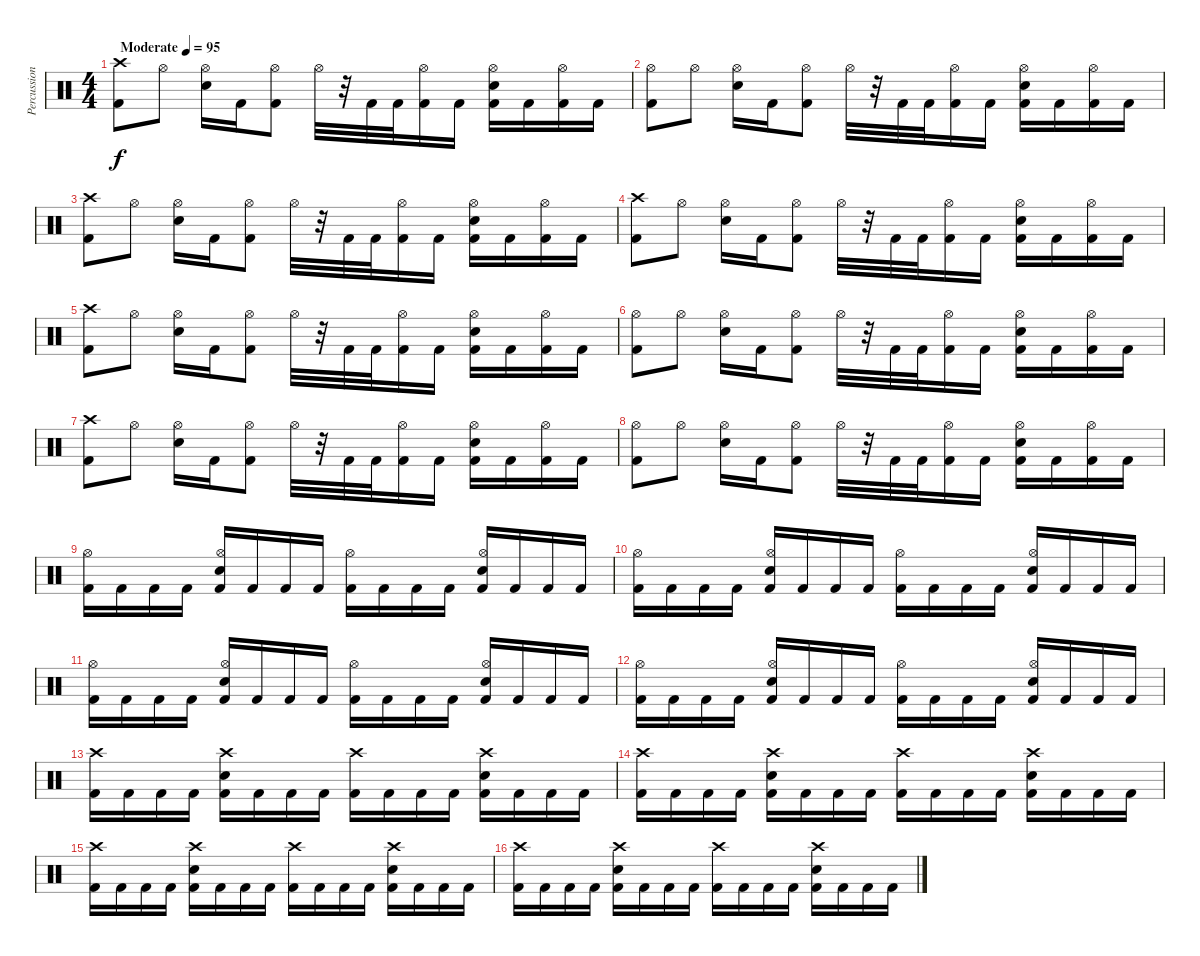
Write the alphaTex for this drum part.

\track ("Percussion" "Percussion") {instrument percussion}
\staff {score}
\articulation defaults
\ts (4 4)
\tempo (95 "Moderate")
\clef neutral
\ks c
("Crash high (hit)" "Kick (hit) 2").8{dy f} "Hi-Hat (open)".8 ("Hi-Hat (open)" "Electric Snare (hit)").16 "Kick (hit) 2".16 ("Hi-Hat (open)" "Kick (hit) 2").8 "Hi-Hat (open)".32 r.32 "Kick (hit) 2".32 "Kick (hit) 2".32 ("Kick (hit) 2" "Hi-Hat (open)").16 "Kick (hit) 2".16 ("Kick (hit) 2" "Hi-Hat (open)" "Electric Snare (hit)").16 "Kick (hit) 2".16 ("Kick (hit) 2" "Hi-Hat (open)").16 "Kick (hit) 2".16 |
("Hi-Hat (open)" "Kick (hit) 2").8 "Hi-Hat (open)".8 ("Hi-Hat (open)" "Electric Snare (hit)").16 "Kick (hit) 2".16 ("Hi-Hat (open)" "Kick (hit) 2").8 "Hi-Hat (open)".32 r.32 "Kick (hit) 2".32 "Kick (hit) 2".32 ("Kick (hit) 2" "Hi-Hat (open)").16 "Kick (hit) 2".16 ("Kick (hit) 2" "Hi-Hat (open)" "Electric Snare (hit)").16 "Kick (hit) 2".16 ("Kick (hit) 2" "Hi-Hat (open)").16 "Kick (hit) 2".16 |
("Crash high (hit)" "Kick (hit) 2").8 "Hi-Hat (open)".8 ("Hi-Hat (open)" "Electric Snare (hit)").16 "Kick (hit) 2".16 ("Hi-Hat (open)" "Kick (hit) 2").8 "Hi-Hat (open)".32 r.32 "Kick (hit) 2".32 "Kick (hit) 2".32 ("Kick (hit) 2" "Hi-Hat (open)").16 "Kick (hit) 2".16 ("Kick (hit) 2" "Hi-Hat (open)" "Electric Snare (hit)").16 "Kick (hit) 2".16 ("Kick (hit) 2" "Hi-Hat (open)").16 "Kick (hit) 2".16 |
("Crash high (hit)" "Kick (hit) 2").8 "Hi-Hat (open)".8 ("Hi-Hat (open)" "Electric Snare (hit)").16 "Kick (hit) 2".16 ("Hi-Hat (open)" "Kick (hit) 2").8 "Hi-Hat (open)".32 r.32 "Kick (hit) 2".32 "Kick (hit) 2".32 ("Kick (hit) 2" "Hi-Hat (open)").16 "Kick (hit) 2".16 ("Kick (hit) 2" "Hi-Hat (open)" "Electric Snare (hit)").16 "Kick (hit) 2".16 ("Kick (hit) 2" "Hi-Hat (open)").16 "Kick (hit) 2".16 |
("Crash high (hit)" "Kick (hit) 2").8 "Hi-Hat (open)".8 ("Hi-Hat (open)" "Electric Snare (hit)").16 "Kick (hit) 2".16 ("Hi-Hat (open)" "Kick (hit) 2").8 "Hi-Hat (open)".32 r.32 "Kick (hit) 2".32 "Kick (hit) 2".32 ("Kick (hit) 2" "Hi-Hat (open)").16 "Kick (hit) 2".16 ("Kick (hit) 2" "Hi-Hat (open)" "Electric Snare (hit)").16 "Kick (hit) 2".16 ("Kick (hit) 2" "Hi-Hat (open)").16 "Kick (hit) 2".16 |
("Hi-Hat (open)" "Kick (hit) 2").8 "Hi-Hat (open)".8 ("Hi-Hat (open)" "Electric Snare (hit)").16 "Kick (hit) 2".16 ("Hi-Hat (open)" "Kick (hit) 2").8 "Hi-Hat (open)".32 r.32 "Kick (hit) 2".32 "Kick (hit) 2".32 ("Kick (hit) 2" "Hi-Hat (open)").16 "Kick (hit) 2".16 ("Kick (hit) 2" "Hi-Hat (open)" "Electric Snare (hit)").16 "Kick (hit) 2".16 ("Kick (hit) 2" "Hi-Hat (open)").16 "Kick (hit) 2".16 |
("Crash high (hit)" "Kick (hit) 2").8 "Hi-Hat (open)".8 ("Hi-Hat (open)" "Electric Snare (hit)").16 "Kick (hit) 2".16 ("Hi-Hat (open)" "Kick (hit) 2").8 "Hi-Hat (open)".32 r.32 "Kick (hit) 2".32 "Kick (hit) 2".32 ("Kick (hit) 2" "Hi-Hat (open)").16 "Kick (hit) 2".16 ("Kick (hit) 2" "Hi-Hat (open)" "Electric Snare (hit)").16 "Kick (hit) 2".16 ("Kick (hit) 2" "Hi-Hat (open)").16 "Kick (hit) 2".16 |
("Hi-Hat (open)" "Kick (hit) 2").8 "Hi-Hat (open)".8 ("Hi-Hat (open)" "Electric Snare (hit)").16 "Kick (hit) 2".16 ("Hi-Hat (open)" "Kick (hit) 2").8 "Hi-Hat (open)".32 r.32 "Kick (hit) 2".32 "Kick (hit) 2".32 ("Kick (hit) 2" "Hi-Hat (open)").16 "Kick (hit) 2".16 ("Kick (hit) 2" "Hi-Hat (open)" "Electric Snare (hit)").16 "Kick (hit) 2".16 ("Kick (hit) 2" "Hi-Hat (open)").16 "Kick (hit) 2".16 |
("Kick (hit) 2" "Hi-Hat (open)").16 "Kick (hit) 2".16 "Kick (hit) 2".16 "Kick (hit) 2".16 ("Kick (hit) 2" "Hi-Hat (open)" "Electric Snare (hit)").16 "Kick (hit) 2".16 "Kick (hit) 2".16 "Kick (hit) 2".16 ("Kick (hit) 2" "Hi-Hat (open)").16 "Kick (hit) 2".16 "Kick (hit) 2".16 "Kick (hit) 2".16 ("Kick (hit) 2" "Hi-Hat (open)" "Electric Snare (hit)").16 "Kick (hit) 2".16 "Kick (hit) 2".16 "Kick (hit) 2".16 |
("Kick (hit) 2" "Hi-Hat (open)").16 "Kick (hit) 2".16 "Kick (hit) 2".16 "Kick (hit) 2".16 ("Kick (hit) 2" "Hi-Hat (open)" "Electric Snare (hit)").16 "Kick (hit) 2".16 "Kick (hit) 2".16 "Kick (hit) 2".16 ("Kick (hit) 2" "Hi-Hat (open)").16 "Kick (hit) 2".16 "Kick (hit) 2".16 "Kick (hit) 2".16 ("Kick (hit) 2" "Hi-Hat (open)" "Electric Snare (hit)").16 "Kick (hit) 2".16 "Kick (hit) 2".16 "Kick (hit) 2".16 |
("Kick (hit) 2" "Hi-Hat (open)").16 "Kick (hit) 2".16 "Kick (hit) 2".16 "Kick (hit) 2".16 ("Kick (hit) 2" "Hi-Hat (open)" "Electric Snare (hit)").16 "Kick (hit) 2".16 "Kick (hit) 2".16 "Kick (hit) 2".16 ("Kick (hit) 2" "Hi-Hat (open)").16 "Kick (hit) 2".16 "Kick (hit) 2".16 "Kick (hit) 2".16 ("Kick (hit) 2" "Hi-Hat (open)" "Electric Snare (hit)").16 "Kick (hit) 2".16 "Kick (hit) 2".16 "Kick (hit) 2".16 |
("Kick (hit) 2" "Hi-Hat (open)").16 "Kick (hit) 2".16 "Kick (hit) 2".16 "Kick (hit) 2".16 ("Kick (hit) 2" "Hi-Hat (open)" "Electric Snare (hit)").16 "Kick (hit) 2".16 "Kick (hit) 2".16 "Kick (hit) 2".16 ("Kick (hit) 2" "Hi-Hat (open)").16 "Kick (hit) 2".16 "Kick (hit) 2".16 "Kick (hit) 2".16 ("Kick (hit) 2" "Hi-Hat (open)" "Electric Snare (hit)").16 "Kick (hit) 2".16 "Kick (hit) 2".16 "Kick (hit) 2".16 |
("Kick (hit) 2" "Crash high (hit)").16 "Kick (hit) 2".16 "Kick (hit) 2".16 "Kick (hit) 2".16 ("Kick (hit) 2" "Crash high (hit)" "Electric Snare (hit)").16 "Kick (hit) 2".16 "Kick (hit) 2".16 "Kick (hit) 2".16 ("Kick (hit) 2" "Crash high (hit)").16 "Kick (hit) 2".16 "Kick (hit) 2".16 "Kick (hit) 2".16 ("Kick (hit) 2" "Crash high (hit)" "Electric Snare (hit)").16 "Kick (hit) 2".16 "Kick (hit) 2".16 "Kick (hit) 2".16 |
("Kick (hit) 2" "Crash high (hit)").16 "Kick (hit) 2".16 "Kick (hit) 2".16 "Kick (hit) 2".16 ("Kick (hit) 2" "Crash high (hit)" "Electric Snare (hit)").16 "Kick (hit) 2".16 "Kick (hit) 2".16 "Kick (hit) 2".16 ("Kick (hit) 2" "Crash high (hit)").16 "Kick (hit) 2".16 "Kick (hit) 2".16 "Kick (hit) 2".16 ("Kick (hit) 2" "Crash high (hit)" "Electric Snare (hit)").16 "Kick (hit) 2".16 "Kick (hit) 2".16 "Kick (hit) 2".16 |
("Kick (hit) 2" "Crash high (hit)").16 "Kick (hit) 2".16 "Kick (hit) 2".16 "Kick (hit) 2".16 ("Kick (hit) 2" "Crash high (hit)" "Electric Snare (hit)").16 "Kick (hit) 2".16 "Kick (hit) 2".16 "Kick (hit) 2".16 ("Kick (hit) 2" "Crash high (hit)").16 "Kick (hit) 2".16 "Kick (hit) 2".16 "Kick (hit) 2".16 ("Kick (hit) 2" "Crash high (hit)" "Electric Snare (hit)").16 "Kick (hit) 2".16 "Kick (hit) 2".16 "Kick (hit) 2".16 |
("Kick (hit) 2" "Crash high (hit)").16 "Kick (hit) 2".16 "Kick (hit) 2".16 "Kick (hit) 2".16 ("Kick (hit) 2" "Crash high (hit)" "Electric Snare (hit)").16 "Kick (hit) 2".16 "Kick (hit) 2".16 "Kick (hit) 2".16 ("Kick (hit) 2" "Crash high (hit)").16 "Kick (hit) 2".16 "Kick (hit) 2".16 "Kick (hit) 2".16 ("Kick (hit) 2" "Crash high (hit)" "Electric Snare (hit)").16 "Kick (hit) 2".16 "Kick (hit) 2".16 "Kick (hit) 2".16
